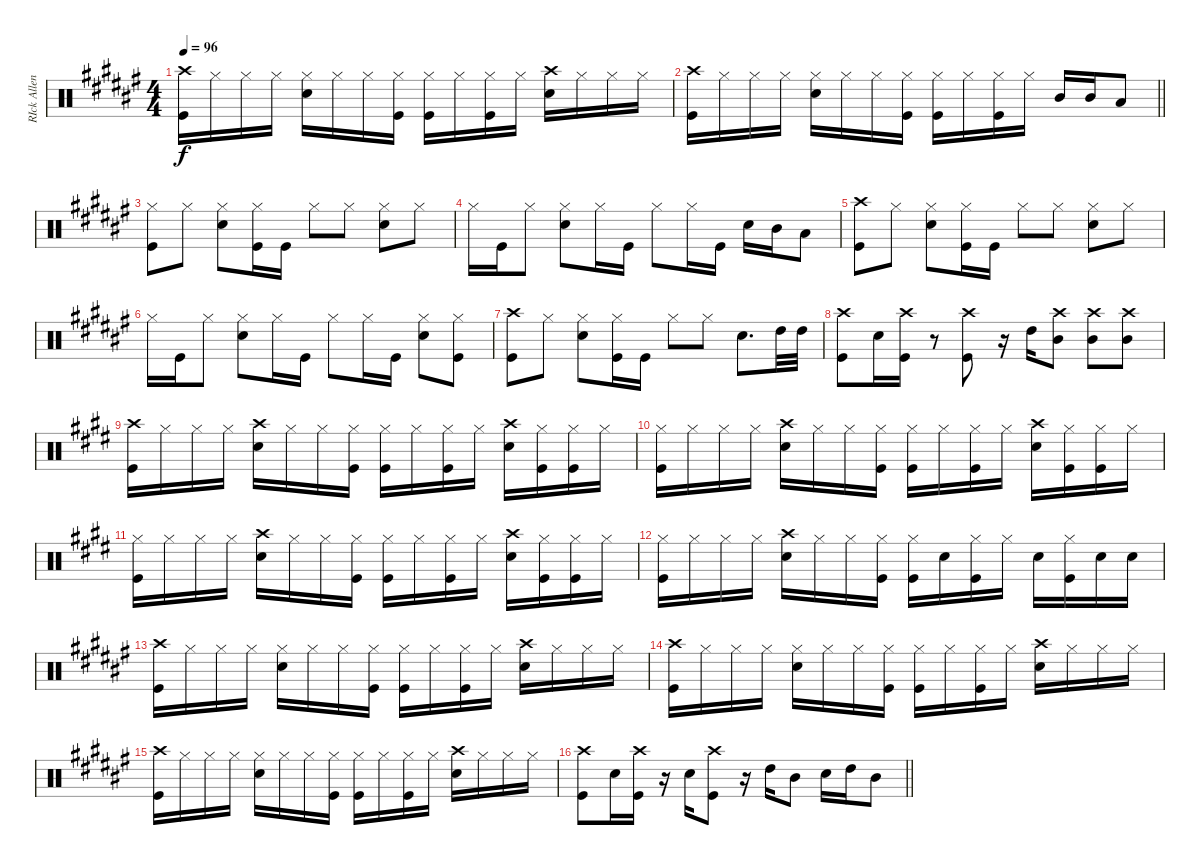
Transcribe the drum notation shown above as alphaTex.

\track ("RIck Allen" "RIck Allen") {instrument percussion}
\staff {score}
\articulation defaults
\ts (4 4)
\tempo 96
\clef neutral
\ks f#
("Crash high (hit)" "Kick (hit)").16{dy f} "Hi-Hat (closed)".16 "Hi-Hat (closed)".16 "Hi-Hat (closed)".16 ("Hi-Hat (closed)" "Snare (hit) 2").16 "Hi-Hat (closed)".16 "Hi-Hat (closed)".16 ("Hi-Hat (closed)" "Kick (hit)").16 ("Hi-Hat (closed)" "Kick (hit)").16 "Hi-Hat (closed)".16 ("Hi-Hat (closed)" "Kick (hit)").16 "Hi-Hat (closed)".16 ("Crash high (hit)" "Snare (hit) 2").16 "Hi-Hat (closed)".16 "Hi-Hat (closed)".16 "Hi-Hat (closed)".16 |
\barLineRight lightlight
("Crash high (hit)" "Kick (hit)").16 "Hi-Hat (closed)".16 "Hi-Hat (closed)".16 "Hi-Hat (closed)".16 ("Hi-Hat (closed)" "Snare (hit) 2").16 "Hi-Hat (closed)".16 "Hi-Hat (closed)".16 ("Hi-Hat (closed)" "Kick (hit)").16 ("Hi-Hat (closed)" "Kick (hit)").16 "Hi-Hat (closed)".16 ("Hi-Hat (closed)" "Kick (hit)").16 "Hi-Hat (closed)".16 "Mid Tom (hit)".16 "Mid Tom (hit)".16 "Low Tom (hit)".8 |
("Hi-Hat (closed)" "Kick (hit)").8 "Hi-Hat (closed)".8 ("Hi-Hat (closed)" "Snare (hit) 2").8 ("Hi-Hat (closed)" "Kick (hit)").16 "Kick (hit)".16 "Hi-Hat (closed)".8 "Hi-Hat (closed)".8 ("Hi-Hat (closed)" "Snare (hit) 2").8 "Hi-Hat (closed)".8 |
"Hi-Hat (closed)".16 "Kick (hit)".16 "Hi-Hat (closed)".8 ("Hi-Hat (closed)" "Snare (hit) 2").8 "Hi-Hat (closed)".16 "Kick (hit)".16 "Hi-Hat (closed)".8 "Hi-Hat (closed)".16 "Kick (hit)".16 "Snare (hit) 2".16 "Mid Tom (hit)".16 "Low Tom (hit)".8 |
("Crash high (hit)" "Kick (hit)").8 "Hi-Hat (closed)".8 ("Hi-Hat (closed)" "Snare (hit) 2").8 ("Hi-Hat (closed)" "Kick (hit)").16 "Kick (hit)".16 "Hi-Hat (closed)".8 "Hi-Hat (closed)".8 ("Hi-Hat (closed)" "Snare (hit) 2").8 "Hi-Hat (closed)".8 |
"Hi-Hat (closed)".16 "Kick (hit)".16 "Hi-Hat (closed)".8 ("Hi-Hat (closed)" "Snare (hit) 2").8 "Hi-Hat (closed)".16 "Kick (hit)".16 "Hi-Hat (closed)".8 "Hi-Hat (closed)".16 "Kick (hit)".16 ("Hi-Hat (closed)" "Snare (hit) 2").8 ("Hi-Hat (closed)" "Kick (hit)").8 |
("Crash high (hit)" "Kick (hit)").8 "Hi-Hat (closed)".8 ("Hi-Hat (closed)" "Snare (hit) 2").8 ("Hi-Hat (closed)" "Kick (hit)").16 "Kick (hit)".16 "Hi-Hat (closed)".8 "Hi-Hat (closed)".8 "Snare (hit) 2".8{d} "High Tom (hit)".32 "High Tom (hit)".32 |
("Crash high (hit)" "Kick (hit)").8 "Snare (hit) 2".16 ("Crash high (hit)" "Kick (hit)").16 r.8 ("Crash high (hit)" "Kick (hit)").8 r.16 "High Tom (hit)".16 ("Crash high (hit)" "Mid Tom (hit)").8 ("Crash high (hit)" "Mid Tom (hit)").8 ("Crash high (hit)" "Mid Tom (hit)").8 |
\ks e
("Crash high (hit)" "Kick (hit)").16 "Hi-Hat (closed)".16 "Hi-Hat (closed)".16 "Hi-Hat (closed)".16 ("Crash high (hit)" "Snare (hit) 2").16 "Hi-Hat (closed)".16 "Hi-Hat (closed)".16 ("Hi-Hat (closed)" "Kick (hit)").16 ("Hi-Hat (closed)" "Kick (hit)").16 "Hi-Hat (closed)".16 ("Hi-Hat (closed)" "Kick (hit)").16 "Hi-Hat (closed)".16 ("Crash high (hit)" "Snare (hit) 2").16 ("Hi-Hat (closed)" "Kick (hit)").16 ("Hi-Hat (closed)" "Kick (hit)").16 "Hi-Hat (closed)".16 |
("Hi-Hat (closed)" "Kick (hit)").16 "Hi-Hat (closed)".16 "Hi-Hat (closed)".16 "Hi-Hat (closed)".16 ("Crash high (hit)" "Snare (hit) 2").16 "Hi-Hat (closed)".16 "Hi-Hat (closed)".16 ("Hi-Hat (closed)" "Kick (hit)").16 ("Hi-Hat (closed)" "Kick (hit)").16 "Hi-Hat (closed)".16 ("Hi-Hat (closed)" "Kick (hit)").16 "Hi-Hat (closed)".16 ("Crash high (hit)" "Snare (hit) 2").16 ("Hi-Hat (closed)" "Kick (hit)").16 ("Hi-Hat (closed)" "Kick (hit)").16 "Hi-Hat (closed)".16 |
("Hi-Hat (closed)" "Kick (hit)").16 "Hi-Hat (closed)".16 "Hi-Hat (closed)".16 "Hi-Hat (closed)".16 ("Crash high (hit)" "Snare (hit) 2").16 "Hi-Hat (closed)".16 "Hi-Hat (closed)".16 ("Hi-Hat (closed)" "Kick (hit)").16 ("Hi-Hat (closed)" "Kick (hit)").16 "Hi-Hat (closed)".16 ("Hi-Hat (closed)" "Kick (hit)").16 "Hi-Hat (closed)".16 ("Crash high (hit)" "Snare (hit) 2").16 ("Hi-Hat (closed)" "Kick (hit)").16 ("Hi-Hat (closed)" "Kick (hit)").16 "Hi-Hat (closed)".16 |
("Hi-Hat (closed)" "Kick (hit)").16 "Hi-Hat (closed)".16 "Hi-Hat (closed)".16 "Hi-Hat (closed)".16 ("Crash high (hit)" "Snare (hit) 2").16 "Hi-Hat (closed)".16 "Hi-Hat (closed)".16 ("Hi-Hat (closed)" "Kick (hit)").16 ("Hi-Hat (closed)" "Kick (hit)").16 "Snare (hit) 2".16 ("Hi-Hat (closed)" "Kick (hit)").16 "Hi-Hat (closed)".16 "Snare (hit) 2".16 ("Hi-Hat (closed)" "Kick (hit)").16 "Snare (hit) 2".16 "Snare (hit) 2".16 |
\ks f#
("Crash high (hit)" "Kick (hit)").16 "Hi-Hat (closed)".16 "Hi-Hat (closed)".16 "Hi-Hat (closed)".16 ("Hi-Hat (closed)" "Snare (hit) 2").16 "Hi-Hat (closed)".16 "Hi-Hat (closed)".16 ("Hi-Hat (closed)" "Kick (hit)").16 ("Hi-Hat (closed)" "Kick (hit)").16 "Hi-Hat (closed)".16 ("Hi-Hat (closed)" "Kick (hit)").16 "Hi-Hat (closed)".16 ("Crash high (hit)" "Snare (hit) 2").16 "Hi-Hat (closed)".16 "Hi-Hat (closed)".16 "Hi-Hat (closed)".16 |
("Crash high (hit)" "Kick (hit)").16 "Hi-Hat (closed)".16 "Hi-Hat (closed)".16 "Hi-Hat (closed)".16 ("Hi-Hat (closed)" "Snare (hit) 2").16 "Hi-Hat (closed)".16 "Hi-Hat (closed)".16 ("Hi-Hat (closed)" "Kick (hit)").16 ("Hi-Hat (closed)" "Kick (hit)").16 "Hi-Hat (closed)".16 ("Hi-Hat (closed)" "Kick (hit)").16 "Hi-Hat (closed)".16 ("Crash high (hit)" "Snare (hit) 2").16 "Hi-Hat (closed)".16 "Hi-Hat (closed)".16 "Hi-Hat (closed)".16 |
("Crash high (hit)" "Kick (hit)").16 "Hi-Hat (closed)".16 "Hi-Hat (closed)".16 "Hi-Hat (closed)".16 ("Hi-Hat (closed)" "Snare (hit) 2").16 "Hi-Hat (closed)".16 "Hi-Hat (closed)".16 ("Hi-Hat (closed)" "Kick (hit)").16 ("Hi-Hat (closed)" "Kick (hit)").16 "Hi-Hat (closed)".16 ("Hi-Hat (closed)" "Kick (hit)").16 "Hi-Hat (closed)".16 ("Crash high (hit)" "Snare (hit) 2").16 "Hi-Hat (closed)".16 "Hi-Hat (closed)".16 "Hi-Hat (closed)".16 |
\barLineRight lightlight
("Crash high (hit)" "Kick (hit)").8 "Snare (hit) 2".16 ("Crash high (hit)" "Kick (hit)").16 r.16 "Snare (hit) 2".16 ("Crash high (hit)" "Kick (hit)").8 r.16 "High Tom (hit)".16 "Mid Tom (hit)".8 "Snare (hit) 2".16 "High Tom (hit)".16 "Mid Tom (hit)".8
